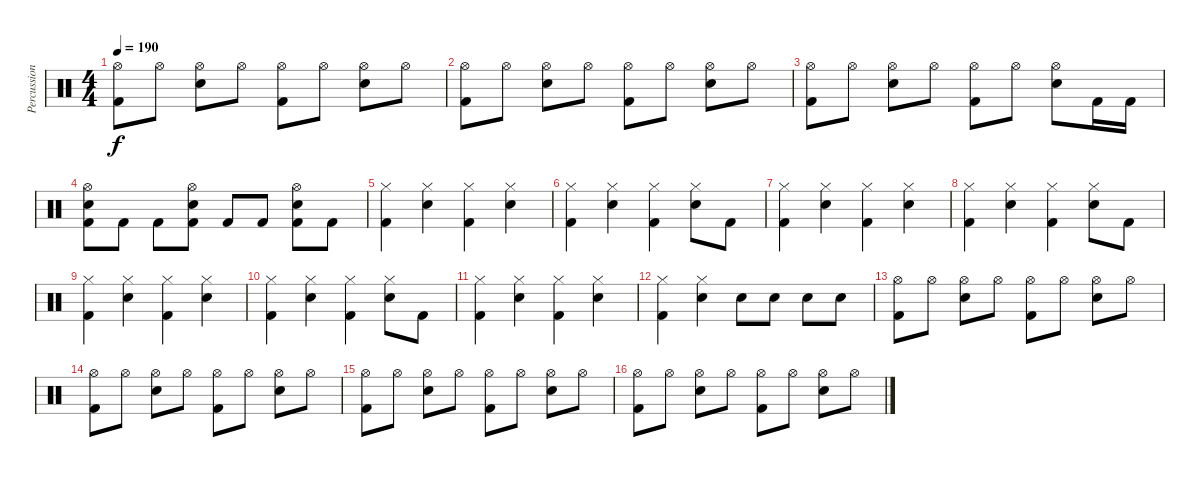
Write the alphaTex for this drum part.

\track ("Percussions" "Percussion") {instrument percussion}
\staff {score}
\articulation defaults
\ts (4 4)
\tempo 190
\clef neutral
\ks c
("Hi-Hat (open)" "Kick (hit) 2").8{dy f} "Hi-Hat (open)".8 ("Hi-Hat (open)" "Snare (hit) 2").8 "Hi-Hat (open)".8 ("Hi-Hat (open)" "Kick (hit) 2").8 "Hi-Hat (open)".8 ("Hi-Hat (open)" "Snare (hit) 2").8 "Hi-Hat (open)".8 |
("Hi-Hat (open)" "Kick (hit) 2").8 "Hi-Hat (open)".8 ("Hi-Hat (open)" "Snare (hit) 2").8 "Hi-Hat (open)".8 ("Hi-Hat (open)" "Kick (hit) 2").8 "Hi-Hat (open)".8 ("Hi-Hat (open)" "Snare (hit) 2").8 "Hi-Hat (open)".8 |
("Hi-Hat (open)" "Kick (hit) 2").8 "Hi-Hat (open)".8 ("Hi-Hat (open)" "Snare (hit) 2").8 "Hi-Hat (open)".8 ("Hi-Hat (open)" "Kick (hit) 2").8 "Hi-Hat (open)".8 ("Hi-Hat (open)" "Snare (hit) 2").8 "Kick (hit) 2".16 "Kick (hit) 2".16 |
("Hi-Hat (open)" "Snare (hit) 2" "Kick (hit) 2").8 "Kick (hit) 2".8 "Kick (hit) 2".8 ("Hi-Hat (open)" "Snare (hit) 2" "Kick (hit) 2").8 "Kick (hit) 2".8 "Kick (hit) 2".8 ("Hi-Hat (open)" "Snare (hit) 2" "Kick (hit) 2").8 "Kick (hit) 2".8 |
("Hi-Hat (closed)" "Kick (hit) 2").4 ("Hi-Hat (closed)" "Snare (hit) 2").4 ("Hi-Hat (closed)" "Kick (hit) 2").4 ("Hi-Hat (closed)" "Snare (hit) 2").4 |
("Hi-Hat (closed)" "Kick (hit) 2").4 ("Hi-Hat (closed)" "Snare (hit) 2").4 ("Hi-Hat (closed)" "Kick (hit) 2").4 ("Hi-Hat (closed)" "Snare (hit) 2").8 "Kick (hit) 2".8 |
("Hi-Hat (closed)" "Kick (hit) 2").4 ("Hi-Hat (closed)" "Snare (hit) 2").4 ("Hi-Hat (closed)" "Kick (hit) 2").4 ("Hi-Hat (closed)" "Snare (hit) 2").4 |
("Hi-Hat (closed)" "Kick (hit) 2").4 ("Hi-Hat (closed)" "Snare (hit) 2").4 ("Hi-Hat (closed)" "Kick (hit) 2").4 ("Hi-Hat (closed)" "Snare (hit) 2").8 "Kick (hit) 2".8 |
("Hi-Hat (closed)" "Kick (hit) 2").4 ("Hi-Hat (closed)" "Snare (hit) 2").4 ("Hi-Hat (closed)" "Kick (hit) 2").4 ("Hi-Hat (closed)" "Snare (hit) 2").4 |
("Hi-Hat (closed)" "Kick (hit) 2").4 ("Hi-Hat (closed)" "Snare (hit) 2").4 ("Hi-Hat (closed)" "Kick (hit) 2").4 ("Hi-Hat (closed)" "Snare (hit) 2").8 "Kick (hit) 2".8 |
("Hi-Hat (closed)" "Kick (hit) 2").4 ("Hi-Hat (closed)" "Snare (hit) 2").4 ("Hi-Hat (closed)" "Kick (hit) 2").4 ("Hi-Hat (closed)" "Snare (hit) 2").4 |
("Hi-Hat (closed)" "Kick (hit) 2").4 ("Hi-Hat (closed)" "Snare (hit) 2").4 "Snare (hit) 2".8 "Snare (hit) 2".8 "Snare (hit) 2".8 "Snare (hit) 2".8 |
("Hi-Hat (open)" "Kick (hit) 2").8 "Hi-Hat (open)".8 ("Hi-Hat (open)" "Snare (hit) 2").8 "Hi-Hat (open)".8 ("Hi-Hat (open)" "Kick (hit) 2").8 "Hi-Hat (open)".8 ("Hi-Hat (open)" "Snare (hit) 2").8 "Hi-Hat (open)".8 |
("Hi-Hat (open)" "Kick (hit) 2").8 "Hi-Hat (open)".8 ("Hi-Hat (open)" "Snare (hit) 2").8 "Hi-Hat (open)".8 ("Hi-Hat (open)" "Kick (hit) 2").8 "Hi-Hat (open)".8 ("Hi-Hat (open)" "Snare (hit) 2").8 "Hi-Hat (open)".8 |
("Hi-Hat (open)" "Kick (hit) 2").8 "Hi-Hat (open)".8 ("Hi-Hat (open)" "Snare (hit) 2").8 "Hi-Hat (open)".8 ("Hi-Hat (open)" "Kick (hit) 2").8 "Hi-Hat (open)".8 ("Hi-Hat (open)" "Snare (hit) 2").8 "Hi-Hat (open)".8 |
("Hi-Hat (open)" "Kick (hit) 2").8 "Hi-Hat (open)".8 ("Hi-Hat (open)" "Snare (hit) 2").8 "Hi-Hat (open)".8 ("Hi-Hat (open)" "Kick (hit) 2").8 "Hi-Hat (open)".8 ("Hi-Hat (open)" "Snare (hit) 2").8 "Hi-Hat (open)".8
